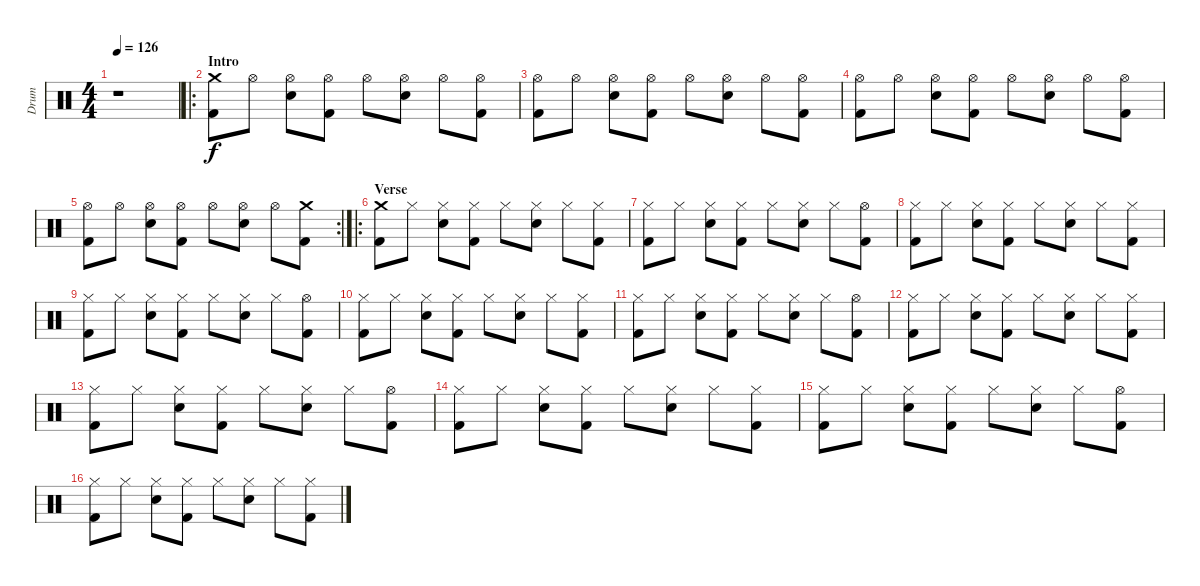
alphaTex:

\track ("Drum" "Drum") {instrument percussion}
\staff {score}
\articulation defaults
\ts (4 4)
\tempo 126
\clef neutral
\ks c
r.1{dy f} |
\ro
\section ("" "Intro")
("Crash medium (hit)" "Kick (hit) 2").8 "Hi-Hat (open)".8 ("Hi-Hat (open)" "Snare (hit) 2").8 ("Hi-Hat (open)" "Kick (hit) 2").8 "Hi-Hat (open)".8 ("Hi-Hat (open)" "Snare (hit) 2").8 "Hi-Hat (open)".8 ("Hi-Hat (open)" "Kick (hit) 2").8 |
("Hi-Hat (open)" "Kick (hit) 2").8 "Hi-Hat (open)".8 ("Hi-Hat (open)" "Snare (hit) 2").8 ("Hi-Hat (open)" "Kick (hit) 2").8 "Hi-Hat (open)".8 ("Hi-Hat (open)" "Snare (hit) 2").8 "Hi-Hat (open)".8 ("Hi-Hat (open)" "Kick (hit) 2").8 |
("Hi-Hat (open)" "Kick (hit) 2").8 "Hi-Hat (open)".8 ("Hi-Hat (open)" "Snare (hit) 2").8 ("Hi-Hat (open)" "Kick (hit) 2").8 "Hi-Hat (open)".8 ("Hi-Hat (open)" "Snare (hit) 2").8 "Hi-Hat (open)".8 ("Hi-Hat (open)" "Kick (hit) 2").8 |
\rc 2
("Hi-Hat (open)" "Kick (hit) 2").8 "Hi-Hat (open)".8 ("Hi-Hat (open)" "Snare (hit) 2").8 ("Hi-Hat (open)" "Kick (hit) 2").8 "Hi-Hat (open)".8 ("Hi-Hat (open)" "Snare (hit) 2").8 "Hi-Hat (open)".8 ("Crash medium (hit)" "Kick (hit) 2").8 |
\ro
\section ("" "Verse")
("Crash medium (hit)" "Kick (hit) 2").8 "Hi-Hat (closed)".8 ("Hi-Hat (closed)" "Snare (hit) 2").8 ("Hi-Hat (closed)" "Kick (hit) 2").8 "Hi-Hat (closed)".8 ("Hi-Hat (closed)" "Snare (hit) 2").8 "Hi-Hat (closed)".8 ("Hi-Hat (closed)" "Kick (hit) 2").8 |
("Hi-Hat (closed)" "Kick (hit) 2").8 "Hi-Hat (closed)".8 ("Hi-Hat (closed)" "Snare (hit) 2").8 ("Hi-Hat (closed)" "Kick (hit) 2").8 "Hi-Hat (closed)".8 ("Hi-Hat (closed)" "Snare (hit) 2").8 "Hi-Hat (closed)".8 ("Hi-Hat (open)" "Kick (hit) 2").8 |
("Hi-Hat (closed)" "Kick (hit) 2").8 "Hi-Hat (closed)".8 ("Hi-Hat (closed)" "Snare (hit) 2").8 ("Hi-Hat (closed)" "Kick (hit) 2").8 "Hi-Hat (closed)".8 ("Hi-Hat (closed)" "Snare (hit) 2").8 "Hi-Hat (closed)".8 ("Hi-Hat (closed)" "Kick (hit) 2").8 |
("Hi-Hat (closed)" "Kick (hit) 2").8 "Hi-Hat (closed)".8 ("Hi-Hat (closed)" "Snare (hit) 2").8 ("Hi-Hat (closed)" "Kick (hit) 2").8 "Hi-Hat (closed)".8 ("Hi-Hat (closed)" "Snare (hit) 2").8 "Hi-Hat (closed)".8 ("Hi-Hat (open)" "Kick (hit) 2").8 |
("Hi-Hat (closed)" "Kick (hit) 2").8 "Hi-Hat (closed)".8 ("Hi-Hat (closed)" "Snare (hit) 2").8 ("Hi-Hat (closed)" "Kick (hit) 2").8 "Hi-Hat (closed)".8 ("Hi-Hat (closed)" "Snare (hit) 2").8 "Hi-Hat (closed)".8 ("Hi-Hat (closed)" "Kick (hit) 2").8 |
("Hi-Hat (closed)" "Kick (hit) 2").8 "Hi-Hat (closed)".8 ("Hi-Hat (closed)" "Snare (hit) 2").8 ("Hi-Hat (closed)" "Kick (hit) 2").8 "Hi-Hat (closed)".8 ("Hi-Hat (closed)" "Snare (hit) 2").8 "Hi-Hat (closed)".8 ("Hi-Hat (open)" "Kick (hit) 2").8 |
("Hi-Hat (closed)" "Kick (hit) 2").8 "Hi-Hat (closed)".8 ("Hi-Hat (closed)" "Snare (hit) 2").8 ("Hi-Hat (closed)" "Kick (hit) 2").8 "Hi-Hat (closed)".8 ("Hi-Hat (closed)" "Snare (hit) 2").8 "Hi-Hat (closed)".8 ("Hi-Hat (closed)" "Kick (hit) 2").8 |
("Hi-Hat (closed)" "Kick (hit) 2").8 "Hi-Hat (closed)".8 ("Hi-Hat (closed)" "Snare (hit) 2").8 ("Hi-Hat (closed)" "Kick (hit) 2").8 "Hi-Hat (closed)".8 ("Hi-Hat (closed)" "Snare (hit) 2").8 "Hi-Hat (closed)".8 ("Hi-Hat (open)" "Kick (hit) 2").8 |
("Hi-Hat (closed)" "Kick (hit) 2").8 "Hi-Hat (closed)".8 ("Hi-Hat (closed)" "Snare (hit) 2").8 ("Hi-Hat (closed)" "Kick (hit) 2").8 "Hi-Hat (closed)".8 ("Hi-Hat (closed)" "Snare (hit) 2").8 "Hi-Hat (closed)".8 ("Hi-Hat (closed)" "Kick (hit) 2").8 |
("Hi-Hat (closed)" "Kick (hit) 2").8 "Hi-Hat (closed)".8 ("Hi-Hat (closed)" "Snare (hit) 2").8 ("Hi-Hat (closed)" "Kick (hit) 2").8 "Hi-Hat (closed)".8 ("Hi-Hat (closed)" "Snare (hit) 2").8 "Hi-Hat (closed)".8 ("Hi-Hat (open)" "Kick (hit) 2").8 |
("Hi-Hat (closed)" "Kick (hit) 2").8 "Hi-Hat (closed)".8 ("Hi-Hat (closed)" "Snare (hit) 2").8 ("Hi-Hat (closed)" "Kick (hit) 2").8 "Hi-Hat (closed)".8 ("Hi-Hat (closed)" "Snare (hit) 2").8 "Hi-Hat (closed)".8 ("Hi-Hat (closed)" "Kick (hit) 2").8
